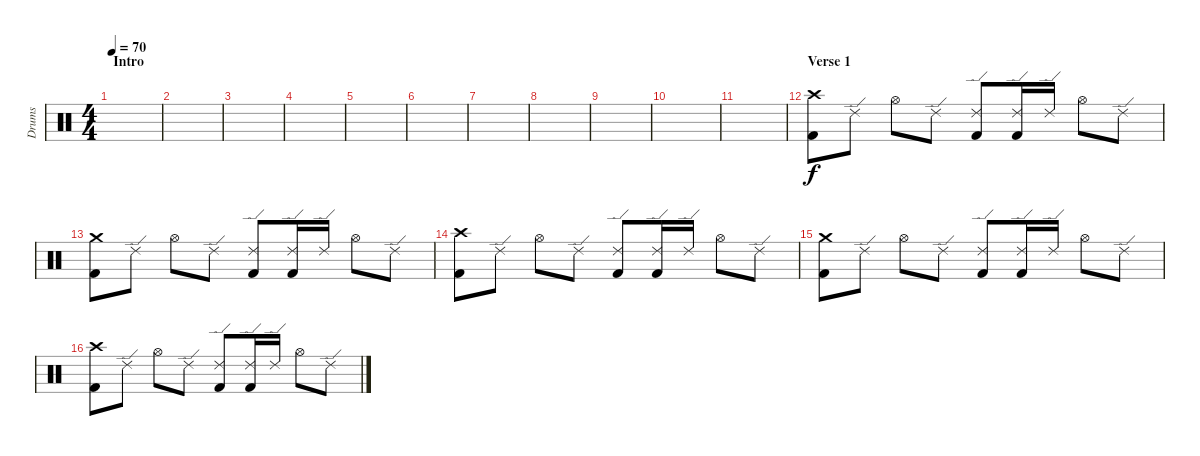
\track ("Drums" "Drums") {instrument percussion}
\staff {score}
\articulation defaults
\ts (4 4)
\section ("" "Intro")
\tempo 70
\clef neutral
\ks c
|
|
|
|
|
|
|
|
|
|
|
\section ("" "Verse 1")
("Crash high (hit)" "Kick (hit) 2").8 "Ride (edge) 2".8 "Hi-Hat (open)".8 "Ride (edge) 2".8 ("Ride (edge) 2" "Kick (hit) 2").8 ("Ride (edge) 2" "Kick (hit) 2").16 "Ride (edge) 2".16 "Hi-Hat (open)".8 "Ride (edge) 2".8 |
("Crash medium (hit)" "Kick (hit) 2").8 "Ride (edge) 2".8 "Hi-Hat (open)".8 "Ride (edge) 2".8 ("Ride (edge) 2" "Kick (hit) 2").8 ("Ride (edge) 2" "Kick (hit) 2").16 "Ride (edge) 2".16 "Hi-Hat (open)".8 "Ride (edge) 2".8 |
("Crash high (hit)" "Kick (hit) 2").8 "Ride (edge) 2".8 "Hi-Hat (open)".8 "Ride (edge) 2".8 ("Ride (edge) 2" "Kick (hit) 2").8 ("Ride (edge) 2" "Kick (hit) 2").16 "Ride (edge) 2".16 "Hi-Hat (open)".8 "Ride (edge) 2".8 |
("Crash medium (hit)" "Kick (hit) 2").8 "Ride (edge) 2".8 "Hi-Hat (open)".8 "Ride (edge) 2".8 ("Ride (edge) 2" "Kick (hit) 2").8 ("Ride (edge) 2" "Kick (hit) 2").16 "Ride (edge) 2".16 "Hi-Hat (open)".8 "Ride (edge) 2".8 |
("Crash high (hit)" "Kick (hit) 2").8 "Ride (edge) 2".8 "Hi-Hat (open)".8 "Ride (edge) 2".8 ("Ride (edge) 2" "Kick (hit) 2").8 ("Ride (edge) 2" "Kick (hit) 2").16 "Ride (edge) 2".16 "Hi-Hat (open)".8 "Ride (edge) 2".8
